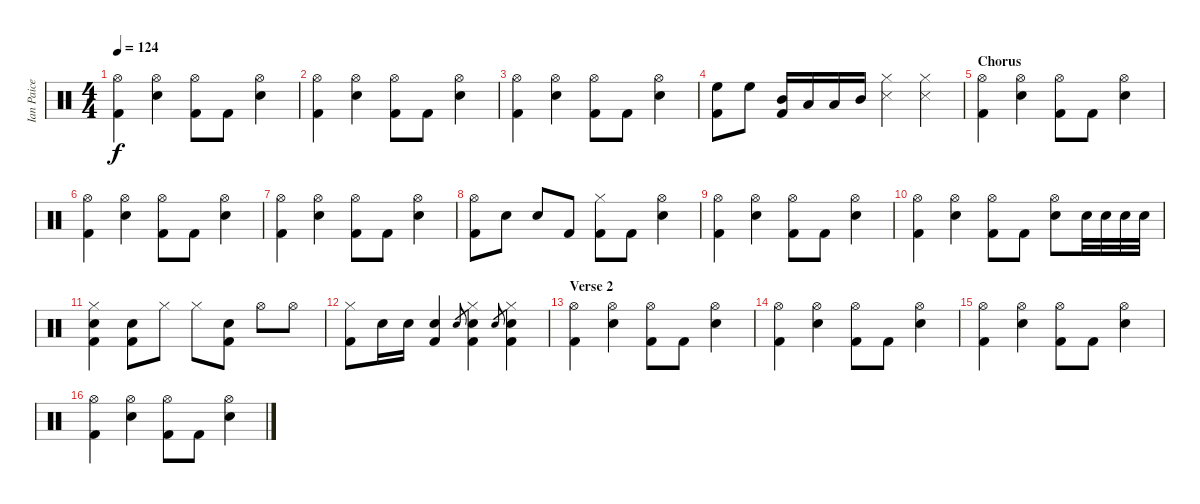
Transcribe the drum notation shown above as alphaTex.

\track ("Ian Paice (drum)" "Ian Paice ") {instrument percussion}
\staff {score}
\articulation defaults
\ts (4 4)
\tempo 124
\clef neutral
\ks c
("Hi-Hat (open)" "Kick (hit) 2").4{dy f} ("Snare (hit) 2" "Hi-Hat (open)").4 ("Hi-Hat (open)" "Kick (hit) 2").8 "Kick (hit) 2".8 ("Snare (hit) 2" "Hi-Hat (open)").4 |
("Hi-Hat (open)" "Kick (hit) 2").4 ("Snare (hit) 2" "Hi-Hat (open)").4 ("Hi-Hat (open)" "Kick (hit) 2").8 "Kick (hit) 2".8 ("Snare (hit) 2" "Hi-Hat (open)").4 |
("Hi-Hat (open)" "Kick (hit) 2").4 ("Snare (hit) 2" "Hi-Hat (open)").4 ("Hi-Hat (open)" "Kick (hit) 2").8 "Kick (hit) 2".8 ("Snare (hit) 2" "Hi-Hat (open)").4 |
("High Floor Tom (hit)" "Kick (hit) 2").8 "High Floor Tom (hit)".8 ("Mid Tom (hit)" "Kick (hit) 2").16 "Low Tom (hit)".16 "Low Floor Tom (hit)".16 "Mid Tom (hit)".16 ("Snare (side stick) 3" "Hi-Hat (closed)").4 ("Snare (side stick) 3" "Hi-Hat (closed)").4 |
\section ("" "Chorus")
("Hi-Hat (open)" "Kick (hit) 2").4 ("Snare (hit) 2" "Hi-Hat (open)").4 ("Hi-Hat (open)" "Kick (hit) 2").8 "Kick (hit) 2".8 ("Snare (hit) 2" "Hi-Hat (open)").4 |
("Hi-Hat (open)" "Kick (hit) 2").4 ("Snare (hit) 2" "Hi-Hat (open)").4 ("Hi-Hat (open)" "Kick (hit) 2").8 "Kick (hit) 2".8 ("Snare (hit) 2" "Hi-Hat (open)").4 |
("Hi-Hat (open)" "Kick (hit) 2").4 ("Snare (hit) 2" "Hi-Hat (open)").4 ("Hi-Hat (open)" "Kick (hit) 2").8 "Kick (hit) 2".8 ("Snare (hit) 2" "Hi-Hat (open)").4 |
("Hi-Hat (open)" "Kick (hit) 2").8 "Snare (hit) 2".8 "Snare (hit) 2".8 "Kick (hit) 2".8 ("Hi-Hat (closed)" "Kick (hit) 2").8 "Kick (hit) 2".8 ("Snare (hit) 2" "Hi-Hat (open)").4 |
("Hi-Hat (open)" "Kick (hit) 2").4 ("Snare (hit) 2" "Hi-Hat (open)").4 ("Hi-Hat (open)" "Kick (hit) 2").8 "Kick (hit) 2".8 ("Snare (hit) 2" "Hi-Hat (open)").4 |
("Hi-Hat (open)" "Kick (hit) 2").4 ("Snare (hit) 2" "Hi-Hat (open)").4 ("Hi-Hat (open)" "Kick (hit) 2").8 "Kick (hit) 2".8 ("Snare (hit) 2" "Hi-Hat (open)").8 "Snare (hit) 2".32 "Snare (hit) 2".32 "Snare (hit) 2".32 "Snare (hit) 2".32 |
("Hi-Hat (closed)" "Snare (hit) 2" "Kick (hit) 2").4 ("Snare (hit) 2" "Kick (hit) 2").8 "Hi-Hat (closed)".8 "Hi-Hat (closed)".8 ("Snare (hit) 2" "Kick (hit) 2").8 "Hi-Hat (open)".8 "Hi-Hat (open)".8 |
("Hi-Hat (closed)" "Kick (hit) 2").8 "Snare (hit) 2".16 "Snare (hit) 2".16 ("Snare (hit) 2" "Kick (hit) 2").4 "Snare (hit) 2".8{gr} ("Hi-Hat (closed)" "Snare (hit) 2" "Kick (hit) 2").4 "Snare (hit) 2".8{gr} ("Hi-Hat (closed)" "Snare (hit) 2" "Kick (hit) 2").4 |
\section ("" "Verse 2")
("Hi-Hat (open)" "Kick (hit) 2").4 ("Snare (hit) 2" "Hi-Hat (open)").4 ("Hi-Hat (open)" "Kick (hit) 2").8 "Kick (hit) 2".8 ("Snare (hit) 2" "Hi-Hat (open)").4 |
("Hi-Hat (open)" "Kick (hit) 2").4 ("Snare (hit) 2" "Hi-Hat (open)").4 ("Hi-Hat (open)" "Kick (hit) 2").8 "Kick (hit) 2".8 ("Snare (hit) 2" "Hi-Hat (open)").4 |
("Hi-Hat (open)" "Kick (hit) 2").4 ("Snare (hit) 2" "Hi-Hat (open)").4 ("Hi-Hat (open)" "Kick (hit) 2").8 "Kick (hit) 2".8 ("Snare (hit) 2" "Hi-Hat (open)").4 |
("Hi-Hat (open)" "Kick (hit) 2").4 ("Snare (hit) 2" "Hi-Hat (open)").4 ("Hi-Hat (open)" "Kick (hit) 2").8 "Kick (hit) 2".8 ("Snare (hit) 2" "Hi-Hat (open)").4
